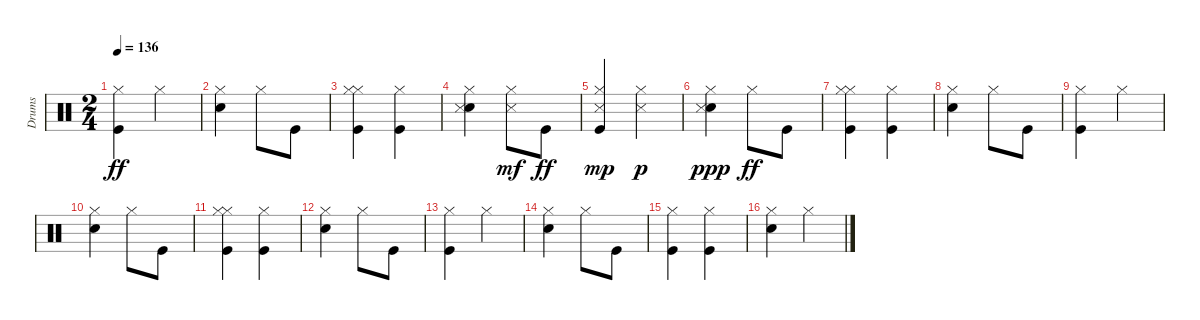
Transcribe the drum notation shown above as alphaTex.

\track ("Drums" "Drums") {instrument percussion}
\staff {score}
\articulation defaults
\ts (2 4)
\tempo 136
\clef neutral
\ks c
("Kick (hit)" "Hi-Hat (closed)").4{dy ff} "Hi-Hat (closed)".4 |
("Hi-Hat (closed)" "Snare (hit) 2").4 "Hi-Hat (closed)".8 "Kick (hit)".8 |
("Kick (hit)" "Hi-Hat (closed)" "Hi-Hat (closed)").4 ("Kick (hit)" "Hi-Hat (closed)").4 |
("Snare (hit) 2" "Hi-Hat (closed)" "Snare (side stick) 3").4 ("Hi-Hat (closed)" "Snare (side stick) 3").8{dy mf} "Kick (hit)".8{dy ff} |
("Kick (hit)" "Hi-Hat (closed)" "Snare (side stick) 3").4{dy mp} ("Hi-Hat (closed)" "Snare (side stick) 3").4{dy p} |
("Snare (hit) 2" "Hi-Hat (closed)" "Snare (side stick) 3").4{dy ppp} "Hi-Hat (closed)".8{dy ff} "Kick (hit)".8 |
("Kick (hit)" "Hi-Hat (closed)" "Hi-Hat (closed)").4 ("Kick (hit)" "Hi-Hat (closed)").4 |
("Snare (hit) 2" "Hi-Hat (closed)").4 "Hi-Hat (closed)".8 "Kick (hit)".8 |
("Kick (hit)" "Hi-Hat (closed)").4 "Hi-Hat (closed)".4 |
("Snare (hit) 2" "Hi-Hat (closed)").4 "Hi-Hat (closed)".8 "Kick (hit)".8 |
("Kick (hit)" "Hi-Hat (closed)" "Hi-Hat (closed)").4 ("Kick (hit)" "Hi-Hat (closed)").4 |
("Snare (hit) 2" "Hi-Hat (closed)").4 "Hi-Hat (closed)".8 "Kick (hit)".8 |
("Kick (hit)" "Hi-Hat (closed)").4 "Hi-Hat (closed)".4 |
("Snare (hit) 2" "Hi-Hat (closed)").4 "Hi-Hat (closed)".8 "Kick (hit)".8 |
("Kick (hit)" "Hi-Hat (closed)").4 ("Kick (hit)" "Hi-Hat (closed)").4 |
("Hi-Hat (closed)" "Snare (hit) 2").4 "Hi-Hat (closed)".4
